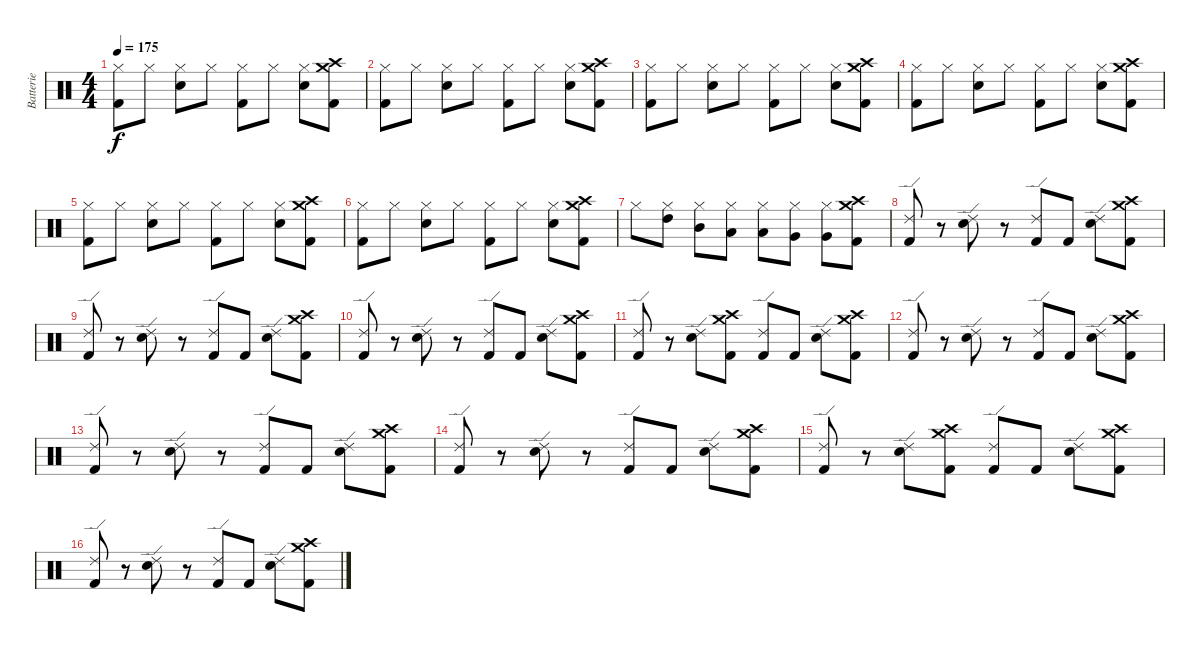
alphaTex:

\track ("Batterie" "Batterie") {instrument percussion}
\staff {score}
\articulation defaults
\ts (4 4)
\tempo 175
\clef neutral
\ks c
("Hi-Hat (closed)" "Kick (hit) 2").8{dy f} "Hi-Hat (closed)".8 ("Hi-Hat (closed)" "Snare (hit) 2").8 "Hi-Hat (closed)".8 ("Hi-Hat (closed)" "Kick (hit) 2").8 "Hi-Hat (closed)".8 ("Hi-Hat (closed)" "Snare (hit) 2").8 ("Crash high (hit)" "Crash medium (hit)" "Kick (hit) 2").8 |
("Hi-Hat (closed)" "Kick (hit) 2").8 "Hi-Hat (closed)".8 ("Hi-Hat (closed)" "Snare (hit) 2").8 "Hi-Hat (closed)".8 ("Hi-Hat (closed)" "Kick (hit) 2").8 "Hi-Hat (closed)".8 ("Hi-Hat (closed)" "Snare (hit) 2").8 ("Crash high (hit)" "Crash medium (hit)" "Kick (hit) 2").8 |
("Hi-Hat (closed)" "Kick (hit) 2").8 "Hi-Hat (closed)".8 ("Hi-Hat (closed)" "Snare (hit) 2").8 "Hi-Hat (closed)".8 ("Hi-Hat (closed)" "Kick (hit) 2").8 "Hi-Hat (closed)".8 ("Hi-Hat (closed)" "Snare (hit) 2").8 ("Crash high (hit)" "Crash medium (hit)" "Kick (hit) 2").8 |
("Hi-Hat (closed)" "Kick (hit) 2").8 "Hi-Hat (closed)".8 ("Hi-Hat (closed)" "Snare (hit) 2").8 "Hi-Hat (closed)".8 ("Hi-Hat (closed)" "Kick (hit) 2").8 "Hi-Hat (closed)".8 ("Hi-Hat (closed)" "Snare (hit) 2").8 ("Crash high (hit)" "Crash medium (hit)" "Kick (hit) 2").8 |
("Hi-Hat (closed)" "Kick (hit) 2").8 "Hi-Hat (closed)".8 ("Hi-Hat (closed)" "Snare (hit) 2").8 "Hi-Hat (closed)".8 ("Hi-Hat (closed)" "Kick (hit) 2").8 "Hi-Hat (closed)".8 ("Hi-Hat (closed)" "Snare (hit) 2").8 ("Crash high (hit)" "Crash medium (hit)" "Kick (hit) 2").8 |
("Hi-Hat (closed)" "Kick (hit) 2").8 "Hi-Hat (closed)".8 ("Hi-Hat (closed)" "Snare (hit) 2").8 "Hi-Hat (closed)".8 ("Hi-Hat (closed)" "Kick (hit) 2").8 "Hi-Hat (closed)".8 ("Hi-Hat (closed)" "Snare (hit) 2").8 ("Crash high (hit)" "Crash medium (hit)" "Kick (hit) 2").8 |
"Hi-Hat (closed)".8 ("Hi-Hat (closed)" "High Tom (hit)").8 ("Hi-Hat (closed)" "Mid Tom (hit)").8 ("Hi-Hat (closed)" "Low Tom (hit)").8 ("Hi-Hat (closed)" "Low Tom (hit)").8 ("Hi-Hat (closed)" "Very Low Tom (hit)").8 ("Hi-Hat (closed)" "Very Low Tom (hit)").8 ("Crash high (hit)" "Crash medium (hit)" "Kick (hit) 2").8 |
("Ride (edge) 2" "Kick (hit) 2").8 r.8 ("Ride (edge) 2" "Snare (hit) 2").8 r.8 ("Ride (edge) 2" "Kick (hit) 2").8 "Kick (hit) 2".8 ("Ride (edge) 2" "Snare (hit) 2").8 ("Crash medium (hit)" "Crash high (hit)" "Kick (hit) 2").8 |
("Ride (edge) 2" "Kick (hit) 2").8 r.8 ("Ride (edge) 2" "Snare (hit) 2").8 r.8 ("Ride (edge) 2" "Kick (hit) 2").8 "Kick (hit) 2".8 ("Ride (edge) 2" "Snare (hit) 2").8 ("Crash medium (hit)" "Crash high (hit)" "Kick (hit) 2").8 |
("Ride (edge) 2" "Kick (hit) 2").8 r.8 ("Ride (edge) 2" "Snare (hit) 2").8 r.8 ("Ride (edge) 2" "Kick (hit) 2").8 "Kick (hit) 2".8 ("Ride (edge) 2" "Snare (hit) 2").8 ("Crash medium (hit)" "Crash high (hit)" "Kick (hit) 2").8 |
("Ride (edge) 2" "Kick (hit) 2").8 r.8 ("Ride (edge) 2" "Snare (hit) 2").8 ("Crash medium (hit)" "Crash high (hit)" "Kick (hit) 2").8 ("Ride (edge) 2" "Kick (hit) 2").8 "Kick (hit) 2".8 ("Ride (edge) 2" "Snare (hit) 2").8 ("Crash medium (hit)" "Crash high (hit)" "Kick (hit) 2").8 |
("Ride (edge) 2" "Kick (hit) 2").8 r.8 ("Ride (edge) 2" "Snare (hit) 2").8 r.8 ("Ride (edge) 2" "Kick (hit) 2").8 "Kick (hit) 2".8 ("Ride (edge) 2" "Snare (hit) 2").8 ("Crash medium (hit)" "Crash high (hit)" "Kick (hit) 2").8 |
("Ride (edge) 2" "Kick (hit) 2").8 r.8 ("Ride (edge) 2" "Snare (hit) 2").8 r.8 ("Ride (edge) 2" "Kick (hit) 2").8 "Kick (hit) 2".8 ("Ride (edge) 2" "Snare (hit) 2").8 ("Crash medium (hit)" "Crash high (hit)" "Kick (hit) 2").8 |
("Ride (edge) 2" "Kick (hit) 2").8 r.8 ("Ride (edge) 2" "Snare (hit) 2").8 r.8 ("Ride (edge) 2" "Kick (hit) 2").8 "Kick (hit) 2".8 ("Ride (edge) 2" "Snare (hit) 2").8 ("Crash medium (hit)" "Crash high (hit)" "Kick (hit) 2").8 |
("Ride (edge) 2" "Kick (hit) 2").8 r.8 ("Ride (edge) 2" "Snare (hit) 2").8 ("Crash medium (hit)" "Crash high (hit)" "Kick (hit) 2").8 ("Ride (edge) 2" "Kick (hit) 2").8 "Kick (hit) 2".8 ("Ride (edge) 2" "Snare (hit) 2").8 ("Crash medium (hit)" "Crash high (hit)" "Kick (hit) 2").8 |
("Ride (edge) 2" "Kick (hit) 2").8 r.8 ("Ride (edge) 2" "Snare (hit) 2").8 r.8 ("Ride (edge) 2" "Kick (hit) 2").8 "Kick (hit) 2".8 ("Ride (edge) 2" "Snare (hit) 2").8 ("Crash medium (hit)" "Crash high (hit)" "Kick (hit) 2").8
